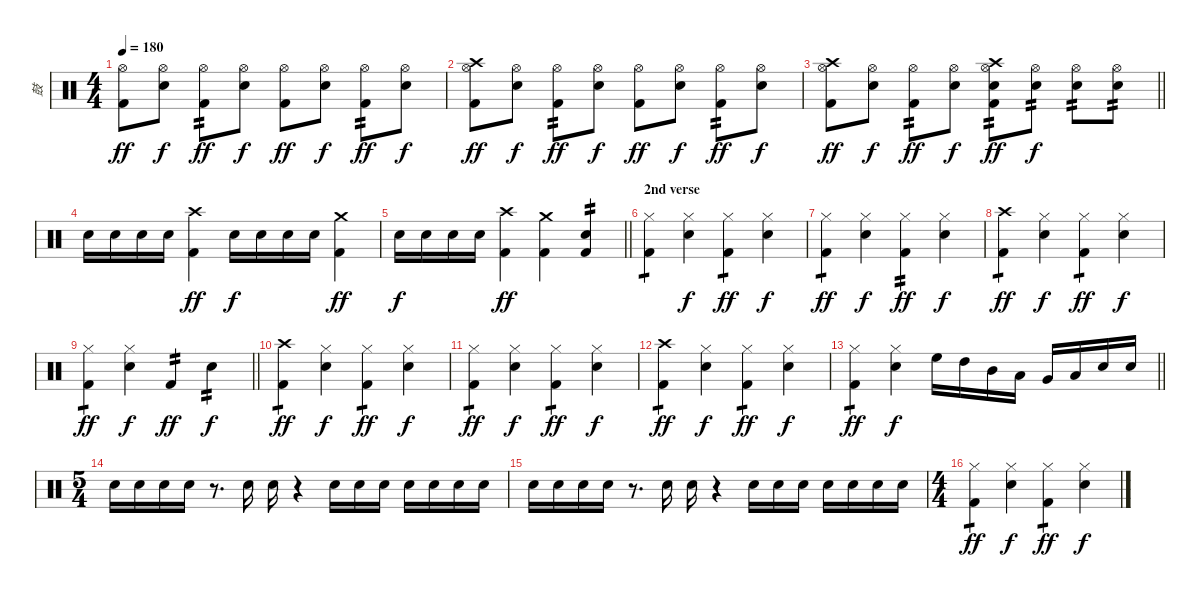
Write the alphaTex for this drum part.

\track ("鼓" "鼓") {instrument percussion}
\staff {score}
\articulation defaults
\ts (4 4)
\tempo 180
\clef neutral
\ks c
("Hi-Hat (open)" "Kick (hit) 2").8{dy ff} ("Hi-Hat (open)" "Snare (hit) 2").8{dy f} ("Hi-Hat (open)" "Kick (hit) 2").8{tp 2 dy ff} ("Hi-Hat (open)" "Snare (hit) 2").8{dy f} ("Hi-Hat (open)" "Kick (hit) 2").8{dy ff} ("Hi-Hat (open)" "Snare (hit) 2").8{dy f} ("Hi-Hat (open)" "Kick (hit) 2").8{tp 2 dy ff} ("Hi-Hat (open)" "Snare (hit) 2").8{dy f} |
("Crash high (hit)" "Hi-Hat (open)" "Kick (hit) 2").8{dy ff} ("Hi-Hat (open)" "Snare (hit) 2").8{dy f} ("Hi-Hat (open)" "Kick (hit) 2").8{tp 2 dy ff} ("Hi-Hat (open)" "Snare (hit) 2").8{dy f} ("Hi-Hat (open)" "Kick (hit) 2").8{dy ff} ("Hi-Hat (open)" "Snare (hit) 2").8{dy f} ("Hi-Hat (open)" "Kick (hit) 2").8{tp 2 dy ff} ("Hi-Hat (open)" "Snare (hit) 2").8{dy f} |
\barLineRight lightlight
("Crash high (hit)" "Hi-Hat (open)" "Kick (hit) 2").8{dy ff} ("Hi-Hat (open)" "Snare (hit) 2").8{dy f} ("Hi-Hat (open)" "Kick (hit) 2").8{tp 2 dy ff} ("Hi-Hat (open)" "Snare (hit) 2").8{dy f} ("Crash high (hit)" "Hi-Hat (open)" "Snare (hit) 2" "Kick (hit) 2").8{tp 2 dy ff} ("Hi-Hat (open)" "Snare (hit) 2").8{tp 2 dy f} ("Hi-Hat (open)" "Snare (hit) 2").8{tp 2} ("Hi-Hat (open)" "Snare (hit) 2").8{tp 2} |
"Snare (hit) 2".16 "Snare (hit) 2".16 "Snare (hit) 2".16 "Snare (hit) 2".16 ("Crash high (hit)" "Kick (hit) 2").4{dy ff} "Snare (hit) 2".16{dy f} "Snare (hit) 2".16 "Snare (hit) 2".16 "Snare (hit) 2".16 ("Crash medium (hit)" "Kick (hit) 2").4{dy ff} |
\barLineRight lightlight "Snare (hit) 2".16{dy f} "Snare (hit) 2".16 "Snare (hit) 2".16 "Snare (hit) 2".16
("Crash high (hit)" "Kick (hit) 2").4{dy ff} ("Crash medium (hit)" "Kick (hit) 2").4 ("Snare (hit) 2" "Kick (hit) 2").4{tp 2} |
\section ("" "2nd verse")
("Hi-Hat (closed)" "Kick (hit) 2").4{tp 1} ("Hi-Hat (closed)" "Snare (hit) 2").4{dy f} ("Hi-Hat (closed)" "Kick (hit) 2").4{tp 1 dy ff} ("Hi-Hat (closed)" "Snare (hit) 2").4{dy f} |
("Hi-Hat (closed)" "Kick (hit) 2").4{tp 1 dy ff} ("Hi-Hat (closed)" "Snare (hit) 2").4{dy f} ("Hi-Hat (closed)" "Kick (hit) 2").4{tp 2 dy ff} ("Hi-Hat (closed)" "Snare (hit) 2").4{dy f} |
("Crash high (hit)" "Kick (hit) 2").4{tp 1 dy ff} ("Hi-Hat (closed)" "Snare (hit) 2").4{dy f} ("Hi-Hat (closed)" "Kick (hit) 2").4{tp 1 dy ff} ("Hi-Hat (closed)" "Snare (hit) 2").4{dy f} |
\barLineRight lightlight
("Hi-Hat (closed)" "Kick (hit) 2").4{tp 1 dy ff} ("Hi-Hat (closed)" "Snare (hit) 2").4{dy f} "Kick (hit) 2".4{tp 2 dy ff} "Snare (hit) 2".4{tp 2 dy f} |
("Crash high (hit)" "Kick (hit) 2").4{tp 1 dy ff} ("Hi-Hat (closed)" "Snare (hit) 2").4{dy f} ("Hi-Hat (closed)" "Kick (hit) 2").4{tp 1 dy ff} ("Hi-Hat (closed)" "Snare (hit) 2").4{dy f} |
("Hi-Hat (closed)" "Kick (hit) 2").4{tp 1 dy ff} ("Hi-Hat (closed)" "Snare (hit) 2").4{dy f} ("Hi-Hat (closed)" "Kick (hit) 2").4{tp 1 dy ff} ("Hi-Hat (closed)" "Snare (hit) 2").4{dy f} |
("Crash high (hit)" "Kick (hit) 2").4{tp 1 dy ff} ("Hi-Hat (closed)" "Snare (hit) 2").4{dy f} ("Hi-Hat (closed)" "Kick (hit) 2").4{tp 1 dy ff} ("Hi-Hat (closed)" "Snare (hit) 2").4{dy f} |
\barLineRight lightlight
("Hi-Hat (closed)" "Kick (hit) 2").4{tp 1 dy ff} ("Hi-Hat (closed)" "Snare (hit) 2").4{dy f} "High Floor Tom (hit)".16 "High Tom (hit)".16 "Mid Tom (hit)".16 "Low Tom (hit)".16 "Very Low Tom (hit)".16 "Low Floor Tom (hit)".16 "Snare (hit) 2".16 "Snare (hit) 2".16 |
\ts (5 4)
"Snare (hit) 2".16 "Snare (hit) 2".16 "Snare (hit) 2".16 "Snare (hit) 2".16 r.8{d} "Snare (hit) 2".16 "Snare (hit) 2".16 r.4 "Snare (hit) 2".16 "Snare (hit) 2".16 "Snare (hit) 2".16 "Snare (hit) 2".16 "Snare (hit) 2".16 "Snare (hit) 2".16 "Snare (hit) 2".16 |
"Snare (hit) 2".16 "Snare (hit) 2".16 "Snare (hit) 2".16 "Snare (hit) 2".16 r.8{d} "Snare (hit) 2".16 "Snare (hit) 2".16 r.4 "Snare (hit) 2".16 "Snare (hit) 2".16 "Snare (hit) 2".16 "Snare (hit) 2".16 "Snare (hit) 2".16 "Snare (hit) 2".16 "Snare (hit) 2".16 |
\ts (4 4)
("Hi-Hat (closed)" "Kick (hit) 2").4{tp 1 dy ff} ("Hi-Hat (closed)" "Snare (hit) 2").4{dy f} ("Hi-Hat (closed)" "Kick (hit) 2").4{tp 1 dy ff} ("Hi-Hat (closed)" "Snare (hit) 2").4{dy f}
